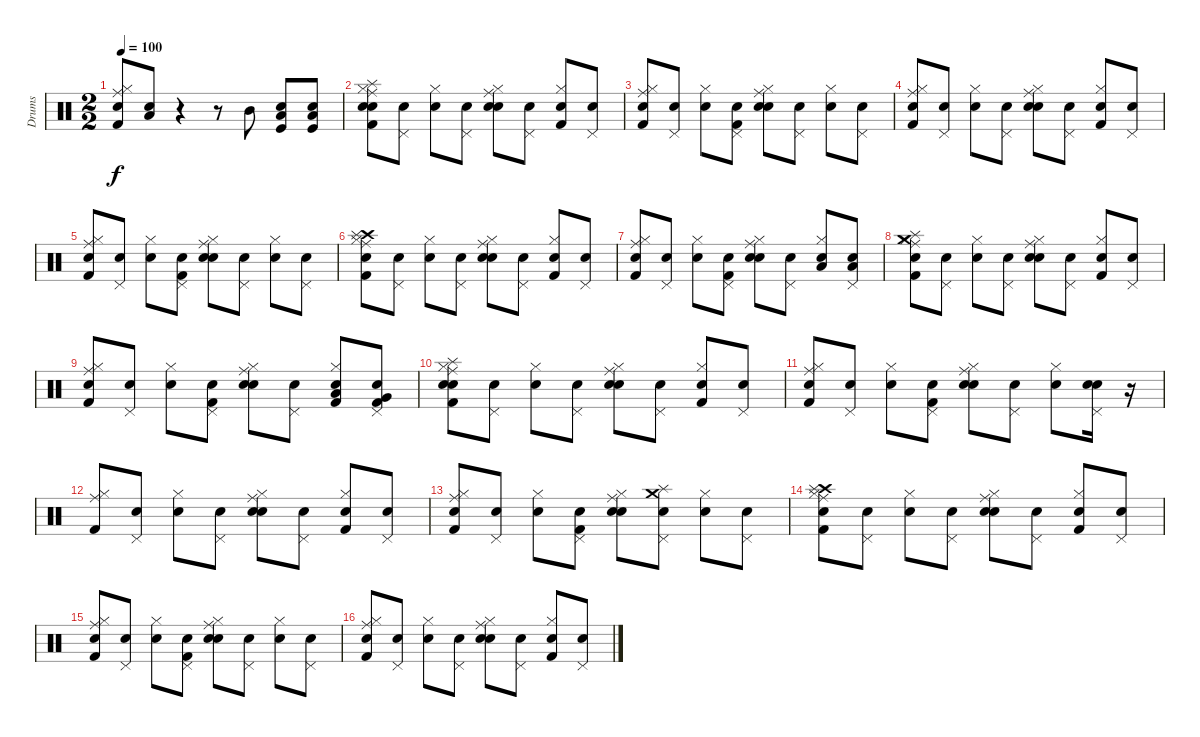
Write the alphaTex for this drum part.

\track ("Drums" "Drums") {instrument percussion}
\staff {score}
\articulation defaults
\ts (2 2)
\tempo 100
\clef neutral
\ks c
("Snare (hit)" "Ride (middle)" "Hi-Hat (closed)" "Kick (hit) 2").8{dy f} ("Snare (hit)" "Low Tom (hit)").8 r.4 r.8 "Mid Tom (hit)".8 ("Snare (hit)" "Kick (hit)" "Low Tom (hit)").8 ("Snare (hit)" "Kick (hit)" "Low Tom (hit)").8 |
("Snare (hit)" "Ride (middle)" "Hi-Hat (closed)" "Kick (hit) 2" "Snare (hit) 2" "Splash (hit)").8 ("Snare (hit)" "Pedal Hi-Hat (hit)").8 ("Snare (hit)" "Hi-Hat (closed)").8 ("Snare (hit)" "Pedal Hi-Hat (hit)").8 ("Snare (hit)" "Ride (middle)" "Hi-Hat (closed)" "Snare (hit) 2").8 ("Snare (hit)" "Pedal Hi-Hat (hit)").8 ("Snare (hit)" "Hi-Hat (closed)" "Kick (hit) 2").8 ("Snare (hit)" "Pedal Hi-Hat (hit)").8 |
("Snare (hit)" "Ride (middle)" "Hi-Hat (closed)" "Kick (hit) 2").8 ("Snare (hit)" "Pedal Hi-Hat (hit)").8 ("Snare (hit)" "Hi-Hat (closed)").8 ("Snare (hit)" "Pedal Hi-Hat (hit)" "Kick (hit) 2").8 ("Snare (hit)" "Ride (middle)" "Hi-Hat (closed)" "Snare (hit) 2").8 ("Snare (hit)" "Pedal Hi-Hat (hit)").8 ("Snare (hit)" "Hi-Hat (closed)").8 ("Snare (hit)" "Pedal Hi-Hat (hit)").8 |
("Snare (hit)" "Kick (hit) 2" "Ride (middle)" "Hi-Hat (closed)").8 ("Snare (hit)" "Pedal Hi-Hat (hit)").8 ("Snare (hit)" "Hi-Hat (closed)").8 ("Snare (hit)" "Pedal Hi-Hat (hit)").8 ("Snare (hit)" "Ride (middle)" "Hi-Hat (closed)" "Snare (hit) 2").8 ("Snare (hit)" "Pedal Hi-Hat (hit)").8 ("Snare (hit)" "Hi-Hat (closed)" "Kick (hit) 2").8 ("Snare (hit)" "Pedal Hi-Hat (hit)").8 |
("Snare (hit)" "Ride (middle)" "Hi-Hat (closed)" "Kick (hit) 2").8 ("Snare (hit)" "Pedal Hi-Hat (hit)").8 ("Snare (hit)" "Hi-Hat (closed)").8 ("Snare (hit)" "Pedal Hi-Hat (hit)" "Kick (hit) 2").8 ("Snare (hit)" "Ride (middle)" "Hi-Hat (closed)" "Snare (hit) 2").8 ("Snare (hit)" "Pedal Hi-Hat (hit)").8 ("Snare (hit)" "Hi-Hat (closed)").8 ("Snare (hit)" "Pedal Hi-Hat (hit)").8 |
("Snare (hit)" "Hi-Hat (closed)" "Ride (middle)" "Kick (hit) 2" "Crash high (hit)" "Splash (hit)").8 ("Snare (hit)" "Pedal Hi-Hat (hit)").8 ("Snare (hit)" "Hi-Hat (closed)").8 ("Snare (hit)" "Pedal Hi-Hat (hit)").8 ("Snare (hit)" "Ride (middle)" "Hi-Hat (closed)" "Snare (hit) 2").8 ("Snare (hit)" "Pedal Hi-Hat (hit)").8 ("Snare (hit)" "Hi-Hat (closed)" "Kick (hit) 2").8 ("Snare (hit)" "Pedal Hi-Hat (hit)").8 |
("Snare (hit)" "Ride (middle)" "Hi-Hat (closed)" "Kick (hit) 2").8 ("Snare (hit)" "Pedal Hi-Hat (hit)").8 ("Snare (hit)" "Hi-Hat (closed)").8 ("Snare (hit)" "Pedal Hi-Hat (hit)" "Kick (hit) 2").8 ("Snare (hit)" "Ride (middle)" "Hi-Hat (closed)" "Snare (hit) 2").8 ("Snare (hit)" "Pedal Hi-Hat (hit)").8 ("Snare (hit)" "Low Tom (hit)" "Hi-Hat (closed)").8 ("Snare (hit)" "Low Tom (hit)" "Pedal Hi-Hat (hit)").8 |
("Snare (hit)" "Crash medium (hit)" "Splash (hit)" "Kick (hit) 2" "Ride (middle)" "Hi-Hat (closed)").8 ("Snare (hit)" "Pedal Hi-Hat (hit)").8 ("Snare (hit)" "Hi-Hat (closed)").8 ("Snare (hit)" "Pedal Hi-Hat (hit)").8 ("Snare (hit)" "Ride (middle)" "Hi-Hat (closed)" "Snare (hit) 2").8 ("Snare (hit)" "Pedal Hi-Hat (hit)").8 ("Snare (hit)" "Hi-Hat (closed)" "Kick (hit) 2").8 ("Snare (hit)" "Pedal Hi-Hat (hit)").8 |
("Snare (hit)" "Ride (middle)" "Hi-Hat (closed)" "Kick (hit) 2").8 ("Snare (hit)" "Pedal Hi-Hat (hit)").8 ("Snare (hit)" "Hi-Hat (closed)").8 ("Snare (hit)" "Pedal Hi-Hat (hit)" "Kick (hit) 2").8 ("Snare (hit)" "Ride (middle)" "Hi-Hat (closed)" "Snare (hit) 2").8 ("Snare (hit)" "Pedal Hi-Hat (hit)").8 ("Snare (hit)" "Kick (hit) 2" "Low Tom (hit)" "Hi-Hat (closed)").8 ("Snare (hit)" "Very Low Tom (hit)" "Kick (hit) 2" "Pedal Hi-Hat (hit)").8 |
("Snare (hit)" "Ride (middle)" "Hi-Hat (closed)" "Kick (hit) 2" "Snare (hit) 2" "Splash (hit)").8 ("Snare (hit)" "Pedal Hi-Hat (hit)").8 ("Snare (hit)" "Hi-Hat (closed)").8 ("Snare (hit)" "Pedal Hi-Hat (hit)").8 ("Snare (hit)" "Ride (middle)" "Hi-Hat (closed)" "Snare (hit) 2").8 ("Snare (hit)" "Pedal Hi-Hat (hit)").8 ("Snare (hit)" "Hi-Hat (closed)" "Kick (hit) 2").8 ("Snare (hit)" "Pedal Hi-Hat (hit)").8 |
("Snare (hit)" "Ride (middle)" "Hi-Hat (closed)" "Kick (hit) 2").8 ("Snare (hit)" "Pedal Hi-Hat (hit)").8 ("Snare (hit)" "Hi-Hat (closed)").8 ("Snare (hit)" "Pedal Hi-Hat (hit)" "Kick (hit) 2").8 ("Snare (hit)" "Ride (middle)" "Hi-Hat (closed)" "Snare (hit) 2").8 ("Snare (hit)" "Pedal Hi-Hat (hit)").8 ("Snare (hit)" "Hi-Hat (closed)").8 ("Snare (hit)" "Snare (hit) 2" "Pedal Hi-Hat (hit)").16 r.16 |
("Kick (hit) 2" "Ride (middle)" "Hi-Hat (closed)").8 ("Snare (hit)" "Pedal Hi-Hat (hit)").8 ("Snare (hit)" "Hi-Hat (closed)").8 ("Snare (hit)" "Pedal Hi-Hat (hit)").8 ("Snare (hit)" "Ride (middle)" "Hi-Hat (closed)" "Snare (hit) 2").8 ("Snare (hit)" "Pedal Hi-Hat (hit)").8 ("Snare (hit)" "Hi-Hat (closed)" "Kick (hit) 2").8 ("Snare (hit)" "Pedal Hi-Hat (hit)").8 |
("Snare (hit)" "Ride (middle)" "Hi-Hat (closed)" "Kick (hit) 2").8 ("Snare (hit)" "Pedal Hi-Hat (hit)").8 ("Snare (hit)" "Hi-Hat (closed)").8 ("Snare (hit)" "Pedal Hi-Hat (hit)" "Kick (hit) 2").8 ("Snare (hit)" "Ride (middle)" "Hi-Hat (closed)" "Snare (hit) 2").8 ("Snare (hit)" "Splash (hit)" "Crash medium (hit)" "Pedal Hi-Hat (hit)").8 ("Snare (hit)" "Hi-Hat (closed)").8 ("Snare (hit)" "Pedal Hi-Hat (hit)").8 |
("Snare (hit)" "Hi-Hat (closed)" "Ride (middle)" "Kick (hit) 2" "Crash high (hit)" "Splash (hit)").8 ("Snare (hit)" "Pedal Hi-Hat (hit)").8 ("Snare (hit)" "Hi-Hat (closed)").8 ("Snare (hit)" "Pedal Hi-Hat (hit)").8 ("Snare (hit)" "Ride (middle)" "Hi-Hat (closed)" "Snare (hit) 2").8 ("Snare (hit)" "Pedal Hi-Hat (hit)").8 ("Snare (hit)" "Hi-Hat (closed)" "Kick (hit) 2").8 ("Snare (hit)" "Pedal Hi-Hat (hit)").8 |
("Snare (hit)" "Ride (middle)" "Hi-Hat (closed)" "Kick (hit) 2").8 ("Snare (hit)" "Pedal Hi-Hat (hit)").8 ("Snare (hit)" "Hi-Hat (closed)").8 ("Snare (hit)" "Pedal Hi-Hat (hit)" "Kick (hit) 2").8 ("Snare (hit)" "Ride (middle)" "Hi-Hat (closed)" "Snare (hit) 2").8 ("Snare (hit)" "Pedal Hi-Hat (hit)").8 ("Snare (hit)" "Hi-Hat (closed)").8 ("Snare (hit)" "Pedal Hi-Hat (hit)").8 |
("Snare (hit)" "Kick (hit) 2" "Ride (middle)" "Hi-Hat (closed)").8 ("Snare (hit)" "Pedal Hi-Hat (hit)").8 ("Snare (hit)" "Hi-Hat (closed)").8 ("Snare (hit)" "Pedal Hi-Hat (hit)").8 ("Snare (hit)" "Ride (middle)" "Hi-Hat (closed)" "Snare (hit) 2").8 ("Snare (hit)" "Pedal Hi-Hat (hit)").8 ("Snare (hit)" "Hi-Hat (closed)" "Kick (hit) 2").8 ("Snare (hit)" "Pedal Hi-Hat (hit)").8
